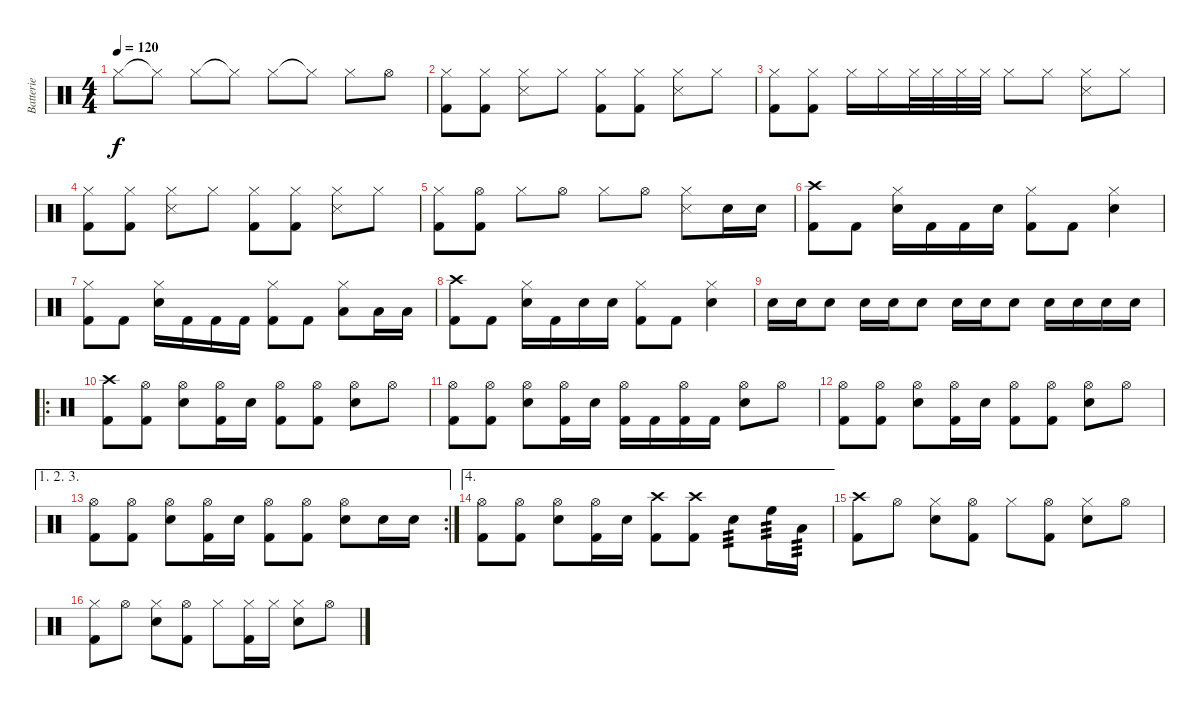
\track ("Batterie" "Batterie") {instrument percussion}
\staff {score}
\articulation defaults
\ts (4 4)
\tempo 120
\clef neutral
\ks c "Hi-Hat (closed)".8{dy f} "Hi-Hat (closed)"{t}.8 "Hi-Hat (closed)".8 "Hi-Hat (closed)"{t}.8 "Hi-Hat (closed)".8 "Hi-Hat (closed)"{t}.8 "Hi-Hat (closed)".8 "Hi-Hat (open)".8
|
("Hi-Hat (closed)" "Kick (hit) 2").8 ("Hi-Hat (closed)" "Kick (hit) 2").8 ("Hi-Hat (closed)" "Snare (side stick) 3").8 "Hi-Hat (closed)".8 ("Hi-Hat (closed)" "Kick (hit) 2").8 ("Hi-Hat (closed)" "Kick (hit) 2").8 ("Hi-Hat (closed)" "Snare (side stick) 3").8 "Hi-Hat (closed)".8 |
("Hi-Hat (closed)" "Kick (hit) 2").8 ("Hi-Hat (closed)" "Kick (hit) 2").8 "Hi-Hat (closed)".16 "Hi-Hat (closed)".16 "Hi-Hat (closed)".32 "Hi-Hat (closed)".32 "Hi-Hat (closed)".32 "Hi-Hat (closed)".32 "Hi-Hat (closed)".8 "Hi-Hat (closed)".8 ("Hi-Hat (closed)" "Snare (side stick) 3").8 "Hi-Hat (closed)".8 |
("Hi-Hat (closed)" "Kick (hit) 2").8 ("Hi-Hat (closed)" "Kick (hit) 2").8 ("Hi-Hat (closed)" "Snare (side stick) 3").8 "Hi-Hat (closed)".8 ("Hi-Hat (closed)" "Kick (hit) 2").8 ("Hi-Hat (closed)" "Kick (hit) 2").8 ("Hi-Hat (closed)" "Snare (side stick) 3").8 "Hi-Hat (closed)".8 |
("Hi-Hat (closed)" "Kick (hit) 2").8 ("Hi-Hat (open)" "Kick (hit) 2").8 "Hi-Hat (closed)".8 "Hi-Hat (open)".8 "Hi-Hat (closed)".8 "Hi-Hat (open)".8 ("Hi-Hat (closed)" "Snare (side stick) 3").8 "Snare (hit) 2".16 "Snare (hit) 2".16 |
("Crash high (hit)" "Kick (hit) 2").8 "Kick (hit) 2".8 ("Hi-Hat (closed)" "Snare (hit) 2").16 "Kick (hit) 2".16 "Kick (hit) 2".16 "Snare (hit) 2".16 ("Hi-Hat (closed)" "Kick (hit) 2").8 "Kick (hit) 2".8 ("Hi-Hat (closed)" "Snare (hit) 2").4 |
("Hi-Hat (closed)" "Kick (hit) 2").8 "Kick (hit) 2".8 ("Hi-Hat (closed)" "Snare (hit) 2").16 "Kick (hit) 2".16 "Kick (hit) 2".16 "Kick (hit) 2".16 ("Hi-Hat (closed)" "Kick (hit) 2").8 "Kick (hit) 2".8 ("Hi-Hat (closed)" "Low Tom (hit)").8 "Low Tom (hit)".16 "Low Tom (hit)".16 |
("Crash high (hit)" "Kick (hit) 2").8 "Kick (hit) 2".8 ("Hi-Hat (closed)" "Snare (hit) 2").16 "Kick (hit) 2".16 "Snare (hit) 2".16 "Snare (hit) 2".16 ("Hi-Hat (closed)" "Kick (hit) 2").8 "Kick (hit) 2".8 ("Hi-Hat (closed)" "Snare (hit) 2").4 |
"Snare (hit) 2".16 "Snare (hit) 2".16 "Snare (hit) 2".8 "Snare (hit) 2".16 "Snare (hit) 2".16 "Snare (hit) 2".8 "Snare (hit) 2".16 "Snare (hit) 2".16 "Snare (hit) 2".8 "Snare (hit) 2".16 "Snare (hit) 2".16 "Snare (hit) 2".16 "Snare (hit) 2".16 |
\ro
("Crash high (hit)" "Kick (hit) 2").8 ("Hi-Hat (open)" "Kick (hit) 2").8 ("Hi-Hat (open)" "Snare (hit) 2").8 ("Hi-Hat (open)" "Kick (hit) 2").16 "Snare (hit) 2".16 ("Hi-Hat (open)" "Kick (hit) 2").8 ("Hi-Hat (open)" "Kick (hit) 2").8 ("Hi-Hat (open)" "Snare (hit) 2").8 "Hi-Hat (open)".8 |
("Hi-Hat (open)" "Kick (hit) 2").8 ("Hi-Hat (open)" "Kick (hit) 2").8 ("Hi-Hat (open)" "Snare (hit) 2").8 ("Hi-Hat (open)" "Kick (hit) 2").16 "Snare (hit) 2".16 ("Hi-Hat (open)" "Kick (hit) 2").16 "Kick (hit) 2".16 ("Hi-Hat (open)" "Kick (hit) 2").16 "Kick (hit) 2".16 ("Hi-Hat (open)" "Snare (hit) 2").8 "Hi-Hat (open)".8 |
("Hi-Hat (open)" "Kick (hit) 2").8 ("Hi-Hat (open)" "Kick (hit) 2").8 ("Hi-Hat (open)" "Snare (hit) 2").8 ("Hi-Hat (open)" "Kick (hit) 2").16 "Snare (hit) 2".16 ("Hi-Hat (open)" "Kick (hit) 2").8 ("Hi-Hat (open)" "Kick (hit) 2").8 ("Hi-Hat (open)" "Snare (hit) 2").8 "Hi-Hat (open)".8 |
\ae (1 2 3)
\rc 2
("Hi-Hat (open)" "Kick (hit) 2").8 ("Hi-Hat (open)" "Kick (hit) 2").8 ("Hi-Hat (open)" "Snare (hit) 2").8 ("Hi-Hat (open)" "Kick (hit) 2").16 "Snare (hit) 2".16 ("Hi-Hat (open)" "Kick (hit) 2").8 ("Hi-Hat (open)" "Kick (hit) 2").8 ("Hi-Hat (open)" "Snare (hit) 2").8 "Snare (hit) 2".16 "Snare (hit) 2".16 |
\ae 4
("Hi-Hat (open)" "Kick (hit) 2").8 ("Hi-Hat (open)" "Kick (hit) 2").8 ("Hi-Hat (open)" "Snare (hit) 2").8 ("Hi-Hat (open)" "Kick (hit) 2").16 "Snare (hit) 2".16 ("Crash high (hit)" "Kick (hit) 2").8 ("Crash high (hit)" "Kick (hit) 2").8 "Snare (hit) 2".8{tp 3} "High Floor Tom (hit)".16{tp 3} "Low Tom (hit)".16{tp 3} |
("Crash high (hit)" "Kick (hit) 2").8 "Hi-Hat (open)".8 ("Hi-Hat (closed)" "Snare (hit) 2").8 ("Hi-Hat (open)" "Kick (hit) 2").8 "Hi-Hat (closed)".8 ("Hi-Hat (open)" "Kick (hit) 2").8 ("Hi-Hat (closed)" "Snare (hit) 2").8 "Hi-Hat (open)".8 |
("Hi-Hat (closed)" "Kick (hit) 2").8 "Hi-Hat (open)".8 ("Hi-Hat (closed)" "Snare (hit) 2").8 ("Hi-Hat (open)" "Kick (hit) 2").8 "Hi-Hat (closed)".8 ("Hi-Hat (closed)" "Kick (hit) 2").16 "Hi-Hat (closed)".16 ("Hi-Hat (closed)" "Snare (hit) 2").8 "Hi-Hat (open)".8
